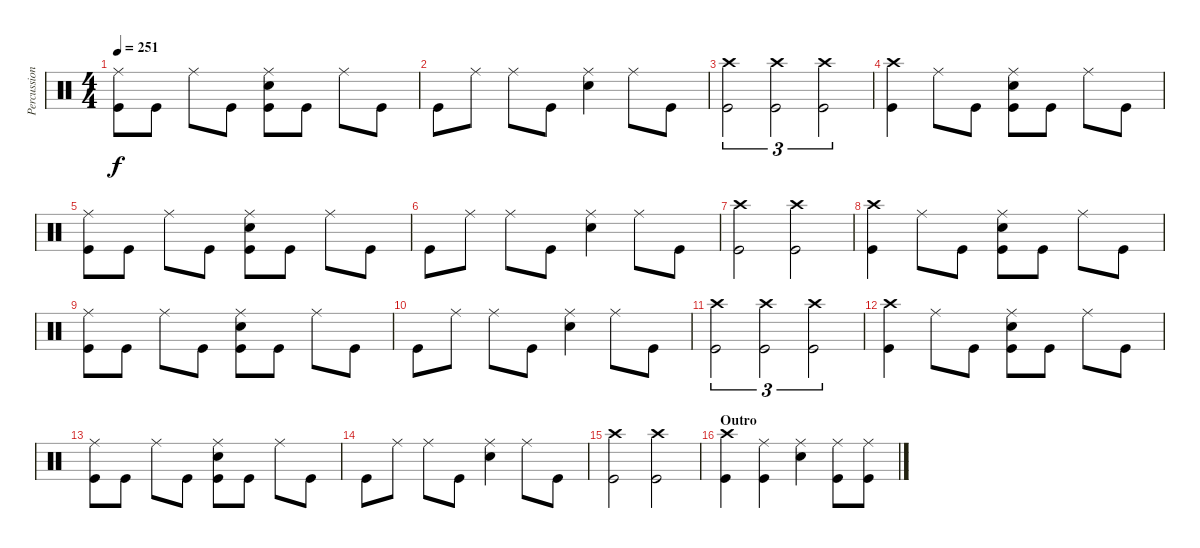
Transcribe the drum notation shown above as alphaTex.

\track ("Percussion" "Percussion") {instrument percussion}
\staff {score}
\articulation defaults
\ts (4 4)
\tempo 251
\clef neutral
\ks c
("Ride (middle)" "Kick (hit)").8{dy f} "Kick (hit)".8 "Ride (middle)".8 "Kick (hit)".8 ("Ride (middle)" "Electric Snare (hit)" "Kick (hit)").8 "Kick (hit)".8 "Ride (middle)".8 "Kick (hit)".8 |
"Kick (hit)".8 "Ride (middle)".8 "Ride (middle)".8 "Kick (hit)".8 ("Ride (middle)" "Electric Snare (hit)").4 "Ride (middle)".8 "Kick (hit)".8 |
("Crash high (hit)" "Kick (hit)").2{tu (3 2)} ("Crash high (hit)" "Kick (hit)").2{tu (3 2)} ("Crash high (hit)" "Kick (hit)").2{tu (3 2)} |
("Crash high (hit)" "Kick (hit)").4 "Ride (middle)".8 "Kick (hit)".8 ("Ride (middle)" "Electric Snare (hit)" "Kick (hit)").8 "Kick (hit)".8 "Ride (middle)".8 "Kick (hit)".8 |
("Ride (middle)" "Kick (hit)").8 "Kick (hit)".8 "Ride (middle)".8 "Kick (hit)".8 ("Ride (middle)" "Electric Snare (hit)" "Kick (hit)").8 "Kick (hit)".8 "Ride (middle)".8 "Kick (hit)".8 |
"Kick (hit)".8 "Ride (middle)".8 "Ride (middle)".8 "Kick (hit)".8 ("Ride (middle)" "Electric Snare (hit)").4 "Ride (middle)".8 "Kick (hit)".8 |
("Crash high (hit)" "Kick (hit)").2 ("Crash high (hit)" "Kick (hit)").2 |
("Crash high (hit)" "Kick (hit)").4 "Ride (middle)".8 "Kick (hit)".8 ("Ride (middle)" "Electric Snare (hit)" "Kick (hit)").8 "Kick (hit)".8 "Ride (middle)".8 "Kick (hit)".8 |
("Ride (middle)" "Kick (hit)").8 "Kick (hit)".8 "Ride (middle)".8 "Kick (hit)".8 ("Ride (middle)" "Electric Snare (hit)" "Kick (hit)").8 "Kick (hit)".8 "Ride (middle)".8 "Kick (hit)".8 |
"Kick (hit)".8 "Ride (middle)".8 "Ride (middle)".8 "Kick (hit)".8 ("Ride (middle)" "Electric Snare (hit)").4 "Ride (middle)".8 "Kick (hit)".8 |
("Crash high (hit)" "Kick (hit)").2{tu (3 2)} ("Crash high (hit)" "Kick (hit)").2{tu (3 2)} ("Crash high (hit)" "Kick (hit)").2{tu (3 2)} |
("Crash high (hit)" "Kick (hit)").4 "Ride (middle)".8 "Kick (hit)".8 ("Ride (middle)" "Electric Snare (hit)" "Kick (hit)").8 "Kick (hit)".8 "Ride (middle)".8 "Kick (hit)".8 |
("Ride (middle)" "Kick (hit)").8 "Kick (hit)".8 "Ride (middle)".8 "Kick (hit)".8 ("Ride (middle)" "Electric Snare (hit)" "Kick (hit)").8 "Kick (hit)".8 "Ride (middle)".8 "Kick (hit)".8 |
"Kick (hit)".8 "Ride (middle)".8 "Ride (middle)".8 "Kick (hit)".8 ("Ride (middle)" "Electric Snare (hit)").4 "Ride (middle)".8 "Kick (hit)".8 |
("Crash high (hit)" "Kick (hit)").2 ("Crash high (hit)" "Kick (hit)").2 |
\section ("" "Outro")
("Crash high (hit)" "Kick (hit)").4 ("Ride (middle)" "Kick (hit)").4 ("Ride (middle)" "Snare (hit) 2").4 ("Ride (middle)" "Kick (hit)").8 ("Ride (middle)" "Kick (hit)").8
